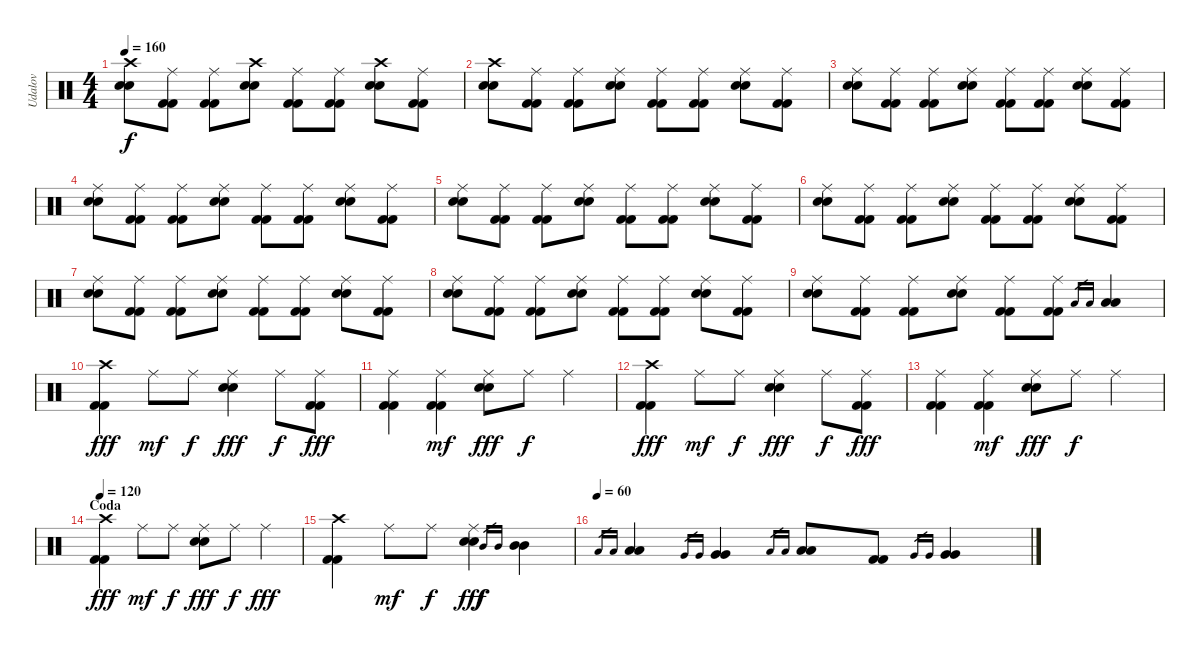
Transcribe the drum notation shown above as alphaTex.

\track ("Udalov" "Udalov") {instrument percussion}
\staff {score}
\articulation defaults
\ts (4 4)
\tempo 160
\clef neutral
\ks c
("Crash high (hit)" "Electric Snare (hit)" "Electric Snare (hit)").8{dy f} ("Ride (middle)" "Kick (hit) 2" "Kick (hit) 2").8 ("Ride (middle)" "Kick (hit) 2" "Kick (hit) 2").8 ("Crash high (hit)" "Electric Snare (hit)" "Electric Snare (hit)").8 ("Ride (middle)" "Kick (hit) 2" "Kick (hit) 2").8 ("Ride (middle)" "Kick (hit) 2" "Kick (hit) 2").8 ("Crash high (hit)" "Electric Snare (hit)" "Electric Snare (hit)").8 ("Ride (middle)" "Kick (hit) 2" "Kick (hit) 2").8 |
("Crash high (hit)" "Electric Snare (hit)" "Electric Snare (hit)").8 ("Ride (middle)" "Kick (hit) 2" "Kick (hit) 2").8 ("Ride (middle)" "Kick (hit) 2" "Kick (hit) 2").8 ("Ride (middle)" "Electric Snare (hit)" "Electric Snare (hit)").8 ("Ride (middle)" "Kick (hit) 2" "Kick (hit) 2").8 ("Ride (middle)" "Kick (hit) 2" "Kick (hit) 2").8 ("Ride (middle)" "Electric Snare (hit)" "Electric Snare (hit)").8 ("Ride (middle)" "Kick (hit) 2" "Kick (hit) 2").8 |
("Ride (middle)" "Electric Snare (hit)" "Electric Snare (hit)").8 ("Ride (middle)" "Kick (hit) 2" "Kick (hit) 2").8 ("Ride (middle)" "Kick (hit) 2" "Kick (hit) 2").8 ("Ride (middle)" "Electric Snare (hit)" "Electric Snare (hit)").8 ("Ride (middle)" "Kick (hit) 2" "Kick (hit) 2").8 ("Ride (middle)" "Kick (hit) 2" "Kick (hit) 2").8 ("Ride (middle)" "Electric Snare (hit)" "Electric Snare (hit)").8 ("Ride (middle)" "Kick (hit) 2" "Kick (hit) 2").8 |
("Ride (middle)" "Electric Snare (hit)" "Electric Snare (hit)").8 ("Ride (middle)" "Kick (hit) 2" "Kick (hit) 2").8 ("Ride (middle)" "Kick (hit) 2" "Kick (hit) 2").8 ("Ride (middle)" "Electric Snare (hit)" "Electric Snare (hit)").8 ("Ride (middle)" "Kick (hit) 2" "Kick (hit) 2").8 ("Ride (middle)" "Kick (hit) 2" "Kick (hit) 2").8 ("Ride (middle)" "Electric Snare (hit)" "Electric Snare (hit)").8 ("Ride (middle)" "Kick (hit) 2" "Kick (hit) 2").8 |
("Ride (middle)" "Electric Snare (hit)" "Electric Snare (hit)").8 ("Ride (middle)" "Kick (hit) 2" "Kick (hit) 2").8 ("Ride (middle)" "Kick (hit) 2" "Kick (hit) 2").8 ("Ride (middle)" "Electric Snare (hit)" "Electric Snare (hit)").8 ("Ride (middle)" "Kick (hit) 2" "Kick (hit) 2").8 ("Ride (middle)" "Kick (hit) 2" "Kick (hit) 2").8 ("Ride (middle)" "Electric Snare (hit)" "Electric Snare (hit)").8 ("Ride (middle)" "Kick (hit) 2" "Kick (hit) 2").8 |
("Ride (middle)" "Electric Snare (hit)" "Electric Snare (hit)").8 ("Ride (middle)" "Kick (hit) 2" "Kick (hit) 2").8 ("Ride (middle)" "Kick (hit) 2" "Kick (hit) 2").8 ("Ride (middle)" "Electric Snare (hit)" "Electric Snare (hit)").8 ("Ride (middle)" "Kick (hit) 2" "Kick (hit) 2").8 ("Ride (middle)" "Kick (hit) 2" "Kick (hit) 2").8 ("Ride (middle)" "Electric Snare (hit)" "Electric Snare (hit)").8 ("Ride (middle)" "Kick (hit) 2" "Kick (hit) 2").8 |
("Ride (middle)" "Electric Snare (hit)" "Electric Snare (hit)").8 ("Ride (middle)" "Kick (hit) 2" "Kick (hit) 2").8 ("Ride (middle)" "Kick (hit) 2" "Kick (hit) 2").8 ("Ride (middle)" "Electric Snare (hit)" "Electric Snare (hit)").8 ("Ride (middle)" "Kick (hit) 2" "Kick (hit) 2").8 ("Ride (middle)" "Kick (hit) 2" "Kick (hit) 2").8 ("Ride (middle)" "Electric Snare (hit)" "Electric Snare (hit)").8 ("Ride (middle)" "Kick (hit) 2" "Kick (hit) 2").8 |
("Ride (middle)" "Electric Snare (hit)" "Electric Snare (hit)").8 ("Ride (middle)" "Kick (hit) 2" "Kick (hit) 2").8 ("Ride (middle)" "Kick (hit) 2" "Kick (hit) 2").8 ("Ride (middle)" "Electric Snare (hit)" "Electric Snare (hit)").8 ("Ride (middle)" "Kick (hit) 2" "Kick (hit) 2").8 ("Ride (middle)" "Kick (hit) 2" "Kick (hit) 2").8 ("Ride (middle)" "Electric Snare (hit)" "Electric Snare (hit)").8 ("Ride (middle)" "Kick (hit) 2" "Kick (hit) 2").8 |
("Ride (middle)" "Electric Snare (hit)" "Electric Snare (hit)").8 ("Ride (middle)" "Kick (hit) 2" "Kick (hit) 2").8 ("Ride (middle)" "Kick (hit) 2" "Kick (hit) 2").8 ("Ride (middle)" "Electric Snare (hit)" "Electric Snare (hit)").8 ("Ride (middle)" "Kick (hit) 2" "Kick (hit) 2").8 ("Ride (middle)" "Kick (hit) 2" "Kick (hit) 2").8 "Low Tom (hit)".16{gr} "Low Tom (hit)".16{gr} ("Low Tom (hit)" "Low Tom (hit)").4 |
("Crash high (hit)" "Kick (hit) 2" "Kick (hit) 2").4{dy fff} "Ride (middle)".8{dy mf} "Ride (middle)".8{dy f} ("Ride (middle)" "Electric Snare (hit)" "Electric Snare (hit)").4{dy fff} "Ride (middle)".8{dy f} ("Ride (middle)" "Kick (hit) 2" "Kick (hit) 2").8{dy fff} |
("Ride (middle)" "Kick (hit) 2" "Kick (hit) 2").4 ("Ride (middle)" "Kick (hit) 2" "Kick (hit) 2").4{dy mf} ("Ride (middle)" "Electric Snare (hit)" "Electric Snare (hit)").8{dy fff} "Ride (middle)".8{dy f} "Ride (middle)".4 |
("Crash high (hit)" "Kick (hit) 2" "Kick (hit) 2").4{dy fff} "Ride (middle)".8{dy mf} "Ride (middle)".8{dy f} ("Ride (middle)" "Electric Snare (hit)" "Electric Snare (hit)").4{dy fff} "Ride (middle)".8{dy f} ("Ride (middle)" "Kick (hit) 2" "Kick (hit) 2").8{dy fff} |
("Ride (middle)" "Kick (hit) 2" "Kick (hit) 2").4 ("Ride (middle)" "Kick (hit) 2" "Kick (hit) 2").4{dy mf} ("Ride (middle)" "Electric Snare (hit)" "Electric Snare (hit)").8{dy fff} "Ride (middle)".8{dy f} "Ride (middle)".4 |
\section ("" "Coda")
\tempo 120
("Crash high (hit)" "Kick (hit) 2" "Kick (hit) 2").4{dy fff} "Ride (middle)".8{dy mf} "Ride (middle)".8{dy f} ("Ride (middle)" "Electric Snare (hit)" "Electric Snare (hit)").8{dy fff} "Ride (middle)".8{dy f} "Ride (middle)".4{dy fff} |
("Crash high (hit)" "Kick (hit) 2" "Kick (hit) 2").4 "Ride (middle)".8{dy mf} "Ride (middle)".8{dy f} ("Ride (middle)" "Electric Snare (hit)" "Electric Snare (hit)").4{dy fff} "Mid Tom (hit)".16{gr dy f} "Mid Tom (hit)".16{gr} ("Mid Tom (hit)" "Mid Tom (hit)").4 |
\tempo (60)
"Low Tom (hit)".16{gr} "Low Tom (hit)".16{gr} ("Low Tom (hit)" "Low Tom (hit)").4 "Very Low Tom (hit)".16{gr} "Very Low Tom (hit)".16{gr} ("Very Low Tom (hit)" "Very Low Tom (hit)").4 "Low Floor Tom (hit)".16{gr} "Low Floor Tom (hit)".16{gr} ("Low Floor Tom (hit)" "Low Floor Tom (hit)").8 ("Kick (hit) 2" "Kick (hit) 2").8 "Very Low Tom (hit)".16{gr} "Very Low Tom (hit)".16{gr} ("Very Low Tom (hit)" "Very Low Tom (hit)").4
